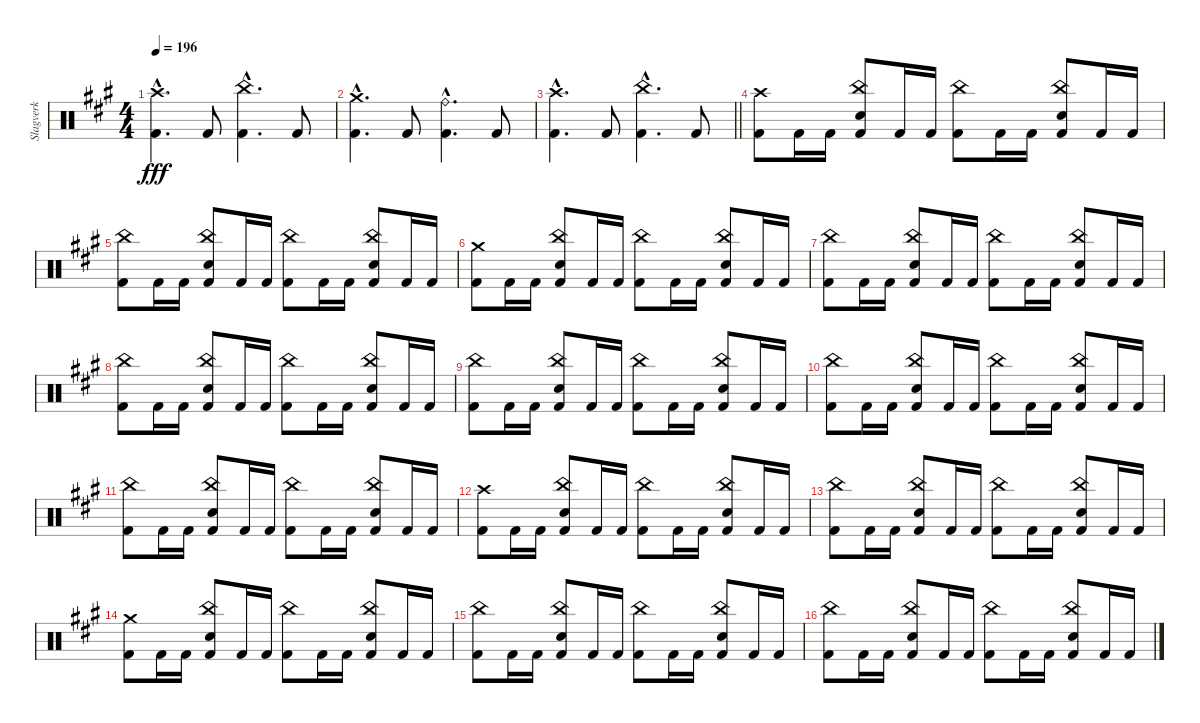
\track ("Slagverk" "Slagverk") {instrument percussion}
\staff {score}
\articulation defaults
\ts (4 4)
\tempo 196
\clef neutral
\ks a
("Crash high (hit)"{hac} "Kick (hit) 2"{hac}).4{d dy fff} "Kick (hit) 2".8 ("China (hit)"{hac} "Kick (hit) 2"{hac}).4{d} "Kick (hit) 2".8 |
("Crash medium (hit)"{hac} "Kick (hit) 2"{hac}).4{d} "Kick (hit) 2".8 ("Ride (bell)"{hac} "Kick (hit) 2"{hac}).4{d} "Kick (hit) 2".8 |
\barLineRight lightlight
("Crash high (hit)"{hac} "Kick (hit) 2"{hac}).4{d} "Kick (hit) 2".8 ("China (hit)"{hac} "Kick (hit) 2"{hac}).4{d} "Kick (hit) 2".8 |
("Crash high (hit)" "Kick (hit) 2").8 "Kick (hit) 2".16 "Kick (hit) 2".16 ("China (hit)" "Snare (hit) 2" "Kick (hit) 2").8 "Kick (hit) 2".16 "Kick (hit) 2".16 ("China (hit)" "Kick (hit) 2").8 "Kick (hit) 2".16 "Kick (hit) 2".16 ("China (hit)" "Snare (hit) 2" "Kick (hit) 2").8 "Kick (hit) 2".16 "Kick (hit) 2".16 |
("China (hit)" "Kick (hit) 2").8 "Kick (hit) 2".16 "Kick (hit) 2".16 ("China (hit)" "Snare (hit) 2" "Kick (hit) 2").8 "Kick (hit) 2".16 "Kick (hit) 2".16 ("China (hit)" "Kick (hit) 2").8 "Kick (hit) 2".16 "Kick (hit) 2".16 ("China (hit)" "Snare (hit) 2" "Kick (hit) 2").8 "Kick (hit) 2".16 "Kick (hit) 2".16 |
("Crash medium (hit)" "Kick (hit) 2").8 "Kick (hit) 2".16 "Kick (hit) 2".16 ("China (hit)" "Snare (hit) 2" "Kick (hit) 2").8 "Kick (hit) 2".16 "Kick (hit) 2".16 ("China (hit)" "Kick (hit) 2").8 "Kick (hit) 2".16 "Kick (hit) 2".16 ("China (hit)" "Snare (hit) 2" "Kick (hit) 2").8 "Kick (hit) 2".16 "Kick (hit) 2".16 |
("China (hit)" "Kick (hit) 2").8 "Kick (hit) 2".16 "Kick (hit) 2".16 ("China (hit)" "Snare (hit) 2" "Kick (hit) 2").8 "Kick (hit) 2".16 "Kick (hit) 2".16 ("China (hit)" "Kick (hit) 2").8 "Kick (hit) 2".16 "Kick (hit) 2".16 ("China (hit)" "Snare (hit) 2" "Kick (hit) 2").8 "Kick (hit) 2".16 "Kick (hit) 2".16 |
("China (hit)" "Kick (hit) 2").8 "Kick (hit) 2".16 "Kick (hit) 2".16 ("China (hit)" "Snare (hit) 2" "Kick (hit) 2").8 "Kick (hit) 2".16 "Kick (hit) 2".16 ("China (hit)" "Kick (hit) 2").8 "Kick (hit) 2".16 "Kick (hit) 2".16 ("China (hit)" "Snare (hit) 2" "Kick (hit) 2").8 "Kick (hit) 2".16 "Kick (hit) 2".16 |
("China (hit)" "Kick (hit) 2").8 "Kick (hit) 2".16 "Kick (hit) 2".16 ("China (hit)" "Snare (hit) 2" "Kick (hit) 2").8 "Kick (hit) 2".16 "Kick (hit) 2".16 ("China (hit)" "Kick (hit) 2").8 "Kick (hit) 2".16 "Kick (hit) 2".16 ("China (hit)" "Snare (hit) 2" "Kick (hit) 2").8 "Kick (hit) 2".16 "Kick (hit) 2".16 |
("China (hit)" "Kick (hit) 2").8 "Kick (hit) 2".16 "Kick (hit) 2".16 ("China (hit)" "Snare (hit) 2" "Kick (hit) 2").8 "Kick (hit) 2".16 "Kick (hit) 2".16 ("China (hit)" "Kick (hit) 2").8 "Kick (hit) 2".16 "Kick (hit) 2".16 ("China (hit)" "Snare (hit) 2" "Kick (hit) 2").8 "Kick (hit) 2".16 "Kick (hit) 2".16 |
("China (hit)" "Kick (hit) 2").8 "Kick (hit) 2".16 "Kick (hit) 2".16 ("China (hit)" "Snare (hit) 2" "Kick (hit) 2").8 "Kick (hit) 2".16 "Kick (hit) 2".16 ("China (hit)" "Kick (hit) 2").8 "Kick (hit) 2".16 "Kick (hit) 2".16 ("China (hit)" "Snare (hit) 2" "Kick (hit) 2").8 "Kick (hit) 2".16 "Kick (hit) 2".16 |
("Crash high (hit)" "Kick (hit) 2").8 "Kick (hit) 2".16 "Kick (hit) 2".16 ("China (hit)" "Snare (hit) 2" "Kick (hit) 2").8 "Kick (hit) 2".16 "Kick (hit) 2".16 ("China (hit)" "Kick (hit) 2").8 "Kick (hit) 2".16 "Kick (hit) 2".16 ("China (hit)" "Snare (hit) 2" "Kick (hit) 2").8 "Kick (hit) 2".16 "Kick (hit) 2".16 |
("China (hit)" "Kick (hit) 2").8 "Kick (hit) 2".16 "Kick (hit) 2".16 ("China (hit)" "Snare (hit) 2" "Kick (hit) 2").8 "Kick (hit) 2".16 "Kick (hit) 2".16 ("China (hit)" "Kick (hit) 2").8 "Kick (hit) 2".16 "Kick (hit) 2".16 ("China (hit)" "Snare (hit) 2" "Kick (hit) 2").8 "Kick (hit) 2".16 "Kick (hit) 2".16 |
("Crash medium (hit)" "Kick (hit) 2").8 "Kick (hit) 2".16 "Kick (hit) 2".16 ("China (hit)" "Snare (hit) 2" "Kick (hit) 2").8 "Kick (hit) 2".16 "Kick (hit) 2".16 ("China (hit)" "Kick (hit) 2").8 "Kick (hit) 2".16 "Kick (hit) 2".16 ("China (hit)" "Snare (hit) 2" "Kick (hit) 2").8 "Kick (hit) 2".16 "Kick (hit) 2".16 |
("China (hit)" "Kick (hit) 2").8 "Kick (hit) 2".16 "Kick (hit) 2".16 ("China (hit)" "Snare (hit) 2" "Kick (hit) 2").8 "Kick (hit) 2".16 "Kick (hit) 2".16 ("China (hit)" "Kick (hit) 2").8 "Kick (hit) 2".16 "Kick (hit) 2".16 ("China (hit)" "Snare (hit) 2" "Kick (hit) 2").8 "Kick (hit) 2".16 "Kick (hit) 2".16 |
("China (hit)" "Kick (hit) 2").8 "Kick (hit) 2".16 "Kick (hit) 2".16 ("China (hit)" "Snare (hit) 2" "Kick (hit) 2").8 "Kick (hit) 2".16 "Kick (hit) 2".16 ("China (hit)" "Kick (hit) 2").8 "Kick (hit) 2".16 "Kick (hit) 2".16 ("China (hit)" "Snare (hit) 2" "Kick (hit) 2").8 "Kick (hit) 2".16 "Kick (hit) 2".16
